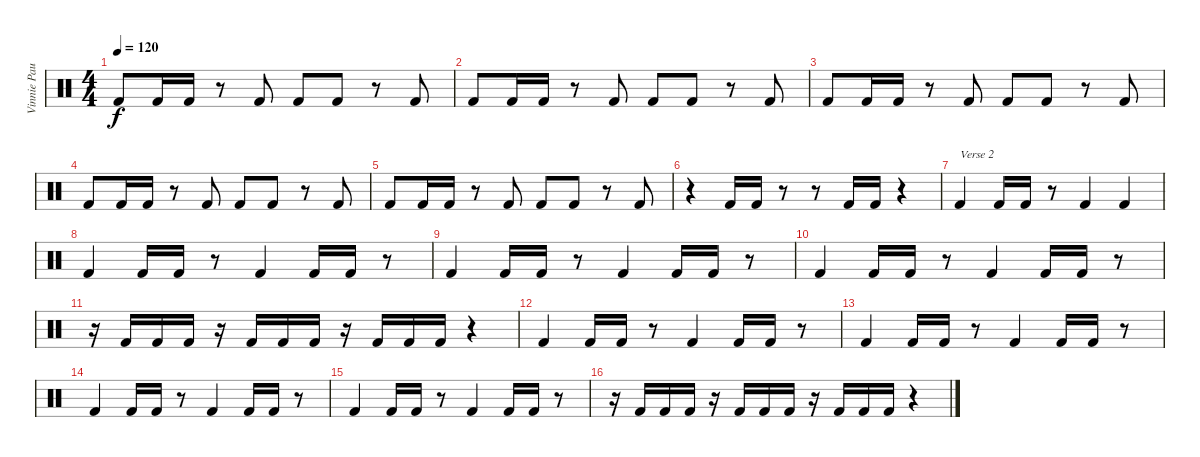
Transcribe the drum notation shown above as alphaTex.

\track ("Vinnie Paul bass drum" "Vinnie Pau") {instrument percussion}
\staff {score}
\articulation defaults
\ts (4 4)
\tempo 120
\clef neutral
\ks c "Kick (hit) 2".8{dy f} "Kick (hit) 2".16 "Kick (hit) 2".16
r.8 "Kick (hit) 2".8 "Kick (hit) 2".8 "Kick (hit) 2".8 r.8 "Kick (hit) 2".8 |
"Kick (hit) 2".8 "Kick (hit) 2".16 "Kick (hit) 2".16 r.8 "Kick (hit) 2".8 "Kick (hit) 2".8 "Kick (hit) 2".8 r.8 "Kick (hit) 2".8 |
"Kick (hit) 2".8 "Kick (hit) 2".16 "Kick (hit) 2".16 r.8 "Kick (hit) 2".8 "Kick (hit) 2".8 "Kick (hit) 2".8 r.8 "Kick (hit) 2".8 |
"Kick (hit) 2".8 "Kick (hit) 2".16 "Kick (hit) 2".16 r.8 "Kick (hit) 2".8 "Kick (hit) 2".8 "Kick (hit) 2".8 r.8 "Kick (hit) 2".8 |
"Kick (hit) 2".8 "Kick (hit) 2".16 "Kick (hit) 2".16 r.8 "Kick (hit) 2".8 "Kick (hit) 2".8 "Kick (hit) 2".8 r.8 "Kick (hit) 2".8 |
r.4 "Kick (hit) 2".16 "Kick (hit) 2".16 r.8 r.8 "Kick (hit) 2".16 "Kick (hit) 2".16 r.4 |
"Kick (hit) 2".4{txt "Verse 2"} "Kick (hit) 2".16 "Kick (hit) 2".16 r.8 "Kick (hit) 2".4 "Kick (hit) 2".4 |
"Kick (hit) 2".4 "Kick (hit) 2".16 "Kick (hit) 2".16 r.8 "Kick (hit) 2".4 "Kick (hit) 2".16 "Kick (hit) 2".16 r.8 |
"Kick (hit) 2".4 "Kick (hit) 2".16 "Kick (hit) 2".16 r.8 "Kick (hit) 2".4 "Kick (hit) 2".16 "Kick (hit) 2".16 r.8 |
"Kick (hit) 2".4 "Kick (hit) 2".16 "Kick (hit) 2".16 r.8 "Kick (hit) 2".4 "Kick (hit) 2".16 "Kick (hit) 2".16 r.8 |
r.16 "Kick (hit) 2".16 "Kick (hit) 2".16 "Kick (hit) 2".16 r.16 "Kick (hit) 2".16 "Kick (hit) 2".16 "Kick (hit) 2".16 r.16 "Kick (hit) 2".16 "Kick (hit) 2".16 "Kick (hit) 2".16 r.4 |
"Kick (hit) 2".4 "Kick (hit) 2".16 "Kick (hit) 2".16 r.8 "Kick (hit) 2".4 "Kick (hit) 2".16 "Kick (hit) 2".16 r.8 |
"Kick (hit) 2".4 "Kick (hit) 2".16 "Kick (hit) 2".16 r.8 "Kick (hit) 2".4 "Kick (hit) 2".16 "Kick (hit) 2".16 r.8 |
"Kick (hit) 2".4 "Kick (hit) 2".16 "Kick (hit) 2".16 r.8 "Kick (hit) 2".4 "Kick (hit) 2".16 "Kick (hit) 2".16 r.8 |
"Kick (hit) 2".4 "Kick (hit) 2".16 "Kick (hit) 2".16 r.8 "Kick (hit) 2".4 "Kick (hit) 2".16 "Kick (hit) 2".16 r.8 |
r.16 "Kick (hit) 2".16 "Kick (hit) 2".16 "Kick (hit) 2".16 r.16 "Kick (hit) 2".16 "Kick (hit) 2".16 "Kick (hit) 2".16 r.16 "Kick (hit) 2".16 "Kick (hit) 2".16 "Kick (hit) 2".16 r.4
